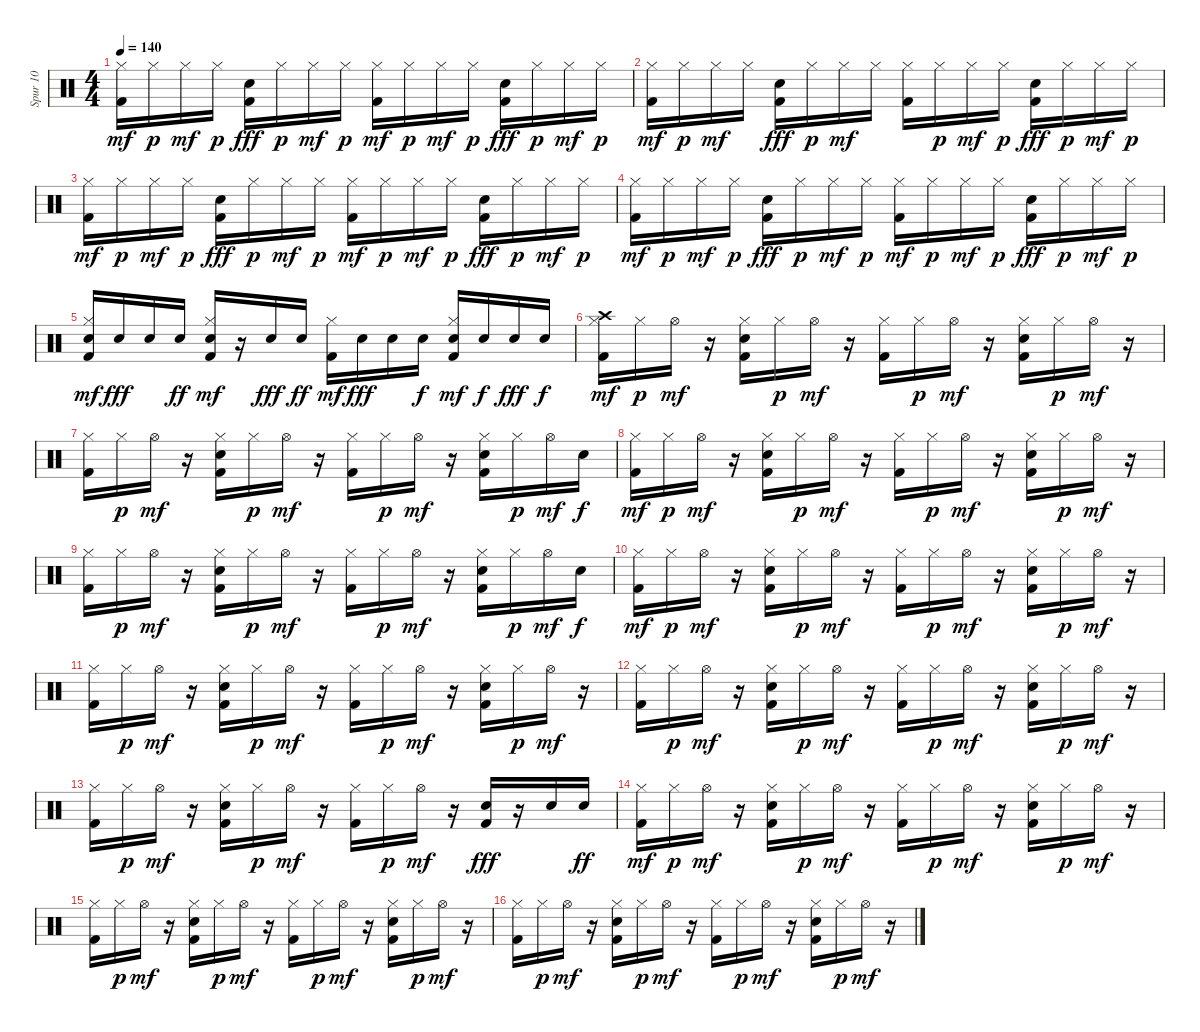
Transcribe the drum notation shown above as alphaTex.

\track ("Spur 10" "Spur 10") {instrument percussion}
\staff {score}
\articulation defaults
\ts (4 4)
\tempo 140
\clef neutral
\ks c
("Kick (hit) 2" "Hi-Hat (closed)").16{dy mf} "Hi-Hat (closed)".16{dy p} "Hi-Hat (closed)".16{dy mf} "Hi-Hat (closed)".16{dy p} ("Kick (hit) 2" "Snare (hit) 2").16{dy fff} "Hi-Hat (closed)".16{dy p} "Hi-Hat (closed)".16{dy mf} "Hi-Hat (closed)".16{dy p} ("Kick (hit) 2" "Hi-Hat (closed)").16{dy mf} "Hi-Hat (closed)".16{dy p} "Hi-Hat (closed)".16{dy mf} "Hi-Hat (closed)".16{dy p} ("Kick (hit) 2" "Snare (hit) 2").16{dy fff} "Hi-Hat (closed)".16{dy p} "Hi-Hat (closed)".16{dy mf} "Hi-Hat (closed)".16{dy p} |
("Kick (hit) 2" "Hi-Hat (closed)").16{dy mf} "Hi-Hat (closed)".16{dy p} "Hi-Hat (closed)".16{dy mf} "Hi-Hat (closed)".16 ("Kick (hit) 2" "Snare (hit) 2").16{dy fff} "Hi-Hat (closed)".16{dy p} "Hi-Hat (closed)".16{dy mf} "Hi-Hat (closed)".16 ("Kick (hit) 2" "Hi-Hat (closed)").16 "Hi-Hat (closed)".16{dy p} "Hi-Hat (closed)".16{dy mf} "Hi-Hat (closed)".16{dy p} ("Kick (hit) 2" "Snare (hit) 2").16{dy fff} "Hi-Hat (closed)".16{dy p} "Hi-Hat (closed)".16{dy mf} "Hi-Hat (closed)".16{dy p} |
("Kick (hit) 2" "Hi-Hat (closed)").16{dy mf} "Hi-Hat (closed)".16{dy p} "Hi-Hat (closed)".16{dy mf} "Hi-Hat (closed)".16{dy p} ("Kick (hit) 2" "Snare (hit) 2").16{dy fff} "Hi-Hat (closed)".16{dy p} "Hi-Hat (closed)".16{dy mf} "Hi-Hat (closed)".16{dy p} ("Kick (hit) 2" "Hi-Hat (closed)").16{dy mf} "Hi-Hat (closed)".16{dy p} "Hi-Hat (closed)".16{dy mf} "Hi-Hat (closed)".16{dy p} ("Kick (hit) 2" "Snare (hit) 2").16{dy fff} "Hi-Hat (closed)".16{dy p} "Hi-Hat (closed)".16{dy mf} "Hi-Hat (closed)".16{dy p} |
("Kick (hit) 2" "Hi-Hat (closed)").16{dy mf} "Hi-Hat (closed)".16{dy p} "Hi-Hat (closed)".16{dy mf} "Hi-Hat (closed)".16{dy p} ("Kick (hit) 2" "Snare (hit) 2").16{dy fff} "Hi-Hat (closed)".16{dy p} "Hi-Hat (closed)".16{dy mf} "Hi-Hat (closed)".16{dy p} ("Kick (hit) 2" "Hi-Hat (closed)").16{dy mf} "Hi-Hat (closed)".16{dy p} "Hi-Hat (closed)".16{dy mf} "Hi-Hat (closed)".16{dy p} ("Kick (hit) 2" "Snare (hit) 2").16{dy fff} "Hi-Hat (closed)".16{dy p} "Hi-Hat (closed)".16{dy mf} "Hi-Hat (closed)".16{dy p} |
("Kick (hit) 2" "Snare (hit) 2" "Hi-Hat (closed)").16{dy mf} "Snare (hit) 2".16{dy fff} "Snare (hit) 2".16 "Snare (hit) 2".16{dy ff} ("Kick (hit) 2" "Snare (hit) 2" "Hi-Hat (closed)").16{dy mf} r.16 "Snare (hit) 2".16{dy fff} "Snare (hit) 2".16{dy ff} ("Kick (hit) 2" "Hi-Hat (closed)").16{dy mf} "Snare (hit) 2".16{dy fff} "Snare (hit) 2".16 "Snare (hit) 2".16{dy f} ("Kick (hit) 2" "Snare (hit) 2" "Hi-Hat (closed)").16{dy mf} "Snare (hit) 2".16{dy f} "Snare (hit) 2".16{dy fff} "Snare (hit) 2".16{dy f} |
("Kick (hit) 2" "Hi-Hat (closed)" "Crash high (hit)").16{dy mf} "Hi-Hat (closed)".16{dy p} "Hi-Hat (open)".16{dy mf} r.16 ("Kick (hit) 2" "Snare (hit) 2" "Hi-Hat (closed)").16 "Hi-Hat (closed)".16{dy p} "Hi-Hat (open)".16{dy mf} r.16 ("Kick (hit) 2" "Hi-Hat (closed)").16 "Hi-Hat (closed)".16{dy p} "Hi-Hat (open)".16{dy mf} r.16 ("Kick (hit) 2" "Snare (hit) 2" "Hi-Hat (closed)").16 "Hi-Hat (closed)".16{dy p} "Hi-Hat (open)".16{dy mf} r.16 |
("Kick (hit) 2" "Hi-Hat (closed)").16 "Hi-Hat (closed)".16{dy p} "Hi-Hat (open)".16{dy mf} r.16 ("Kick (hit) 2" "Snare (hit) 2" "Hi-Hat (closed)").16 "Hi-Hat (closed)".16{dy p} "Hi-Hat (open)".16{dy mf} r.16 ("Kick (hit) 2" "Hi-Hat (closed)").16 "Hi-Hat (closed)".16{dy p} "Hi-Hat (open)".16{dy mf} r.16 ("Kick (hit) 2" "Snare (hit) 2" "Hi-Hat (closed)").16 "Hi-Hat (closed)".16{dy p} "Hi-Hat (open)".16{dy mf} "Snare (hit) 2".16{dy f} |
("Kick (hit) 2" "Hi-Hat (closed)").16{dy mf} "Hi-Hat (closed)".16{dy p} "Hi-Hat (open)".16{dy mf} r.16 ("Kick (hit) 2" "Snare (hit) 2" "Hi-Hat (closed)").16 "Hi-Hat (closed)".16{dy p} "Hi-Hat (open)".16{dy mf} r.16 ("Kick (hit) 2" "Hi-Hat (closed)").16 "Hi-Hat (closed)".16{dy p} "Hi-Hat (open)".16{dy mf} r.16 ("Kick (hit) 2" "Snare (hit) 2" "Hi-Hat (closed)").16 "Hi-Hat (closed)".16{dy p} "Hi-Hat (open)".16{dy mf} r.16 |
("Kick (hit) 2" "Hi-Hat (closed)").16 "Hi-Hat (closed)".16{dy p} "Hi-Hat (open)".16{dy mf} r.16 ("Kick (hit) 2" "Snare (hit) 2" "Hi-Hat (closed)").16 "Hi-Hat (closed)".16{dy p} "Hi-Hat (open)".16{dy mf} r.16 ("Kick (hit) 2" "Hi-Hat (closed)").16 "Hi-Hat (closed)".16{dy p} "Hi-Hat (open)".16{dy mf} r.16 ("Kick (hit) 2" "Snare (hit) 2" "Hi-Hat (closed)").16 "Hi-Hat (closed)".16{dy p} "Hi-Hat (open)".16{dy mf} "Snare (hit) 2".16{dy f} |
("Kick (hit) 2" "Hi-Hat (closed)").16{dy mf} "Hi-Hat (closed)".16{dy p} "Hi-Hat (open)".16{dy mf} r.16 ("Kick (hit) 2" "Snare (hit) 2" "Hi-Hat (closed)").16 "Hi-Hat (closed)".16{dy p} "Hi-Hat (open)".16{dy mf} r.16 ("Kick (hit) 2" "Hi-Hat (closed)").16 "Hi-Hat (closed)".16{dy p} "Hi-Hat (open)".16{dy mf} r.16 ("Kick (hit) 2" "Snare (hit) 2" "Hi-Hat (closed)").16 "Hi-Hat (closed)".16{dy p} "Hi-Hat (open)".16{dy mf} r.16 |
("Kick (hit) 2" "Hi-Hat (closed)").16 "Hi-Hat (closed)".16{dy p} "Hi-Hat (open)".16{dy mf} r.16 ("Kick (hit) 2" "Snare (hit) 2" "Hi-Hat (closed)").16 "Hi-Hat (closed)".16{dy p} "Hi-Hat (open)".16{dy mf} r.16 ("Kick (hit) 2" "Hi-Hat (closed)").16 "Hi-Hat (closed)".16{dy p} "Hi-Hat (open)".16{dy mf} r.16 ("Kick (hit) 2" "Snare (hit) 2" "Hi-Hat (closed)").16 "Hi-Hat (closed)".16{dy p} "Hi-Hat (open)".16{dy mf} r.16 |
("Kick (hit) 2" "Hi-Hat (closed)").16 "Hi-Hat (closed)".16{dy p} "Hi-Hat (open)".16{dy mf} r.16 ("Kick (hit) 2" "Snare (hit) 2" "Hi-Hat (closed)").16 "Hi-Hat (closed)".16{dy p} "Hi-Hat (open)".16{dy mf} r.16 ("Kick (hit) 2" "Hi-Hat (closed)").16 "Hi-Hat (closed)".16{dy p} "Hi-Hat (open)".16{dy mf} r.16 ("Kick (hit) 2" "Snare (hit) 2" "Hi-Hat (closed)").16 "Hi-Hat (closed)".16{dy p} "Hi-Hat (open)".16{dy mf} r.16 |
("Kick (hit) 2" "Hi-Hat (closed)").16 "Hi-Hat (closed)".16{dy p} "Hi-Hat (open)".16{dy mf} r.16 ("Kick (hit) 2" "Snare (hit) 2" "Hi-Hat (closed)").16 "Hi-Hat (closed)".16{dy p} "Hi-Hat (open)".16{dy mf} r.16 ("Kick (hit) 2" "Hi-Hat (closed)").16 "Hi-Hat (closed)".16{dy p} "Hi-Hat (open)".16{dy mf} r.16 ("Kick (hit) 2" "Snare (hit) 2").16{dy fff} r.16 "Snare (hit) 2".16 "Snare (hit) 2".16{dy ff} |
("Kick (hit) 2" "Hi-Hat (closed)").16{dy mf} "Hi-Hat (closed)".16{dy p} "Hi-Hat (open)".16{dy mf} r.16 ("Kick (hit) 2" "Snare (hit) 2" "Hi-Hat (closed)").16 "Hi-Hat (closed)".16{dy p} "Hi-Hat (open)".16{dy mf} r.16 ("Kick (hit) 2" "Hi-Hat (closed)").16 "Hi-Hat (closed)".16{dy p} "Hi-Hat (open)".16{dy mf} r.16 ("Kick (hit) 2" "Snare (hit) 2" "Hi-Hat (closed)").16 "Hi-Hat (closed)".16{dy p} "Hi-Hat (open)".16{dy mf} r.16 |
("Kick (hit) 2" "Hi-Hat (closed)").16 "Hi-Hat (closed)".16{dy p} "Hi-Hat (open)".16{dy mf} r.16 ("Kick (hit) 2" "Snare (hit) 2" "Hi-Hat (closed)").16 "Hi-Hat (closed)".16{dy p} "Hi-Hat (open)".16{dy mf} r.16 ("Kick (hit) 2" "Hi-Hat (closed)").16 "Hi-Hat (closed)".16{dy p} "Hi-Hat (open)".16{dy mf} r.16 ("Kick (hit) 2" "Snare (hit) 2" "Hi-Hat (closed)").16 "Hi-Hat (closed)".16{dy p} "Hi-Hat (open)".16{dy mf} r.16 |
("Kick (hit) 2" "Hi-Hat (closed)").16 "Hi-Hat (closed)".16{dy p} "Hi-Hat (open)".16{dy mf} r.16 ("Kick (hit) 2" "Snare (hit) 2" "Hi-Hat (closed)").16 "Hi-Hat (closed)".16{dy p} "Hi-Hat (open)".16{dy mf} r.16 ("Kick (hit) 2" "Hi-Hat (closed)").16 "Hi-Hat (closed)".16{dy p} "Hi-Hat (open)".16{dy mf} r.16 ("Kick (hit) 2" "Snare (hit) 2" "Hi-Hat (closed)").16 "Hi-Hat (closed)".16{dy p} "Hi-Hat (open)".16{dy mf} r.16
